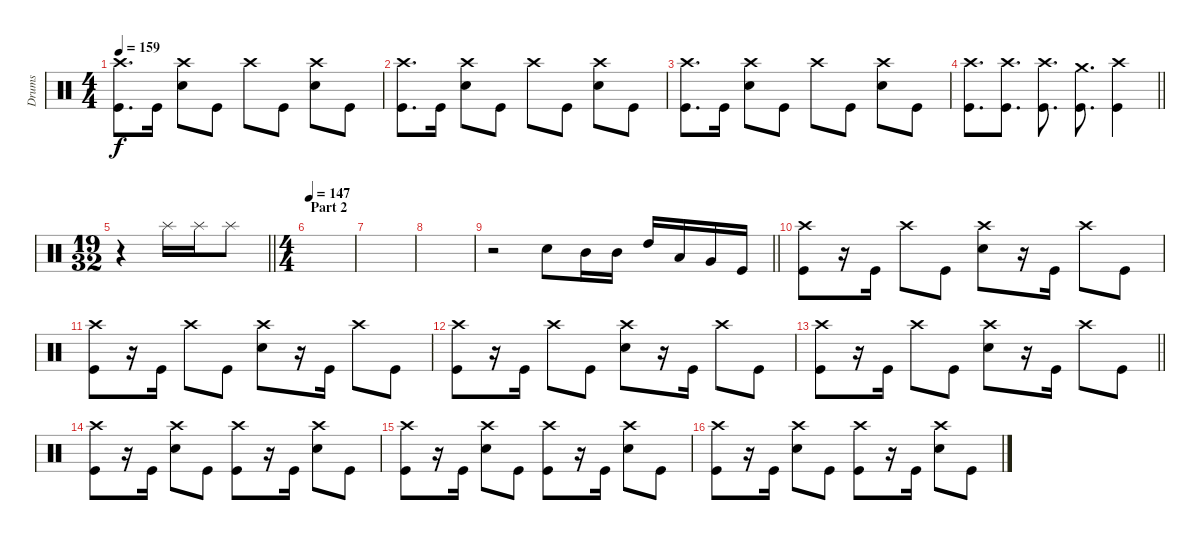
\track ("Drums" "Drums") {instrument percussion}
\staff {score}
\articulation defaults
\ts (4 4)
\tempo 159
\clef neutral
\ks c
("Crash high (hit)" "Kick (hit)").8{d dy f} "Kick (hit)".16 ("Crash high (hit)" "Snare (hit) 2").8 "Kick (hit)".8 "Crash high (hit)".8 "Kick (hit)".8 ("Crash high (hit)" "Snare (hit) 2").8 "Kick (hit)".8 |
("Crash high (hit)" "Kick (hit)").8{d} "Kick (hit)".16 ("Crash high (hit)" "Snare (hit) 2").8 "Kick (hit)".8 "Crash high (hit)".8 "Kick (hit)".8 ("Crash high (hit)" "Snare (hit) 2").8 "Kick (hit)".8 |
("Crash high (hit)" "Kick (hit)").8{d} "Kick (hit)".16 ("Crash high (hit)" "Snare (hit) 2").8 "Kick (hit)".8 "Crash high (hit)".8 "Kick (hit)".8 ("Crash high (hit)" "Snare (hit) 2").8 "Kick (hit)".8 |
\barLineRight lightlight
("Crash high (hit)" "Kick (hit)").8{d} ("Crash high (hit)" "Kick (hit)").8{d} ("Crash high (hit)" "Kick (hit)").8{d} ("Crash medium (hit)" "Kick (hit)").8{d} ("Crash high (hit)" "Kick (hit)").4 |
\ts (19 32)
\barLineRight lightlight
r.4 "Splash (hit)".16 "Splash (hit)".16 "Splash (hit)".8 |
\ts (4 4)
\section ("" "Part 2")
\tempo 147
|
|
|
\barLineRight lightlight
r.2 "Snare (hit) 2".8 "Mid Tom (hit)".16 "Mid Tom (hit)".16 "High Tom (hit)".16 "Low Tom (hit)".16 "Very Low Tom (hit)".16 "Kick (hit)".16 |
\section ("" "")
("Crash high (hit)" "Kick (hit)").8 r.16 "Kick (hit)".16 "Crash high (hit)".8 "Kick (hit)".8 ("Crash high (hit)" "Snare (hit) 2").8 r.16 "Kick (hit)".16 "Crash high (hit)".8 "Kick (hit)".8 |
("Crash high (hit)" "Kick (hit)").8 r.16 "Kick (hit)".16 "Crash high (hit)".8 "Kick (hit)".8 ("Crash high (hit)" "Snare (hit) 2").8 r.16 "Kick (hit)".16 "Crash high (hit)".8 "Kick (hit)".8 |
("Crash high (hit)" "Kick (hit)").8 r.16 "Kick (hit)".16 "Crash high (hit)".8 "Kick (hit)".8 ("Crash high (hit)" "Snare (hit) 2").8 r.16 "Kick (hit)".16 "Crash high (hit)".8 "Kick (hit)".8 |
\barLineRight lightlight
("Crash high (hit)" "Kick (hit)").8 r.16 "Kick (hit)".16 "Crash high (hit)".8 "Kick (hit)".8 ("Crash high (hit)" "Snare (hit) 2").8 r.16 "Kick (hit)".16 "Crash high (hit)".8 "Kick (hit)".8 |
\section ("" "")
("Crash high (hit)" "Kick (hit)").8 r.16 "Kick (hit)".16 ("Crash high (hit)" "Snare (hit) 2").8 "Kick (hit)".8 ("Crash high (hit)" "Kick (hit)").8 r.16 "Kick (hit)".16 ("Crash high (hit)" "Snare (hit) 2").8 "Kick (hit)".8 |
("Crash high (hit)" "Kick (hit)").8 r.16 "Kick (hit)".16 ("Crash high (hit)" "Snare (hit) 2").8 "Kick (hit)".8 ("Crash high (hit)" "Kick (hit)").8 r.16 "Kick (hit)".16 ("Crash high (hit)" "Snare (hit) 2").8 "Kick (hit)".8 |
("Crash high (hit)" "Kick (hit)").8 r.16 "Kick (hit)".16 ("Crash high (hit)" "Snare (hit) 2").8 "Kick (hit)".8 ("Crash high (hit)" "Kick (hit)").8 r.16 "Kick (hit)".16 ("Crash high (hit)" "Snare (hit) 2").8 "Kick (hit)".8
